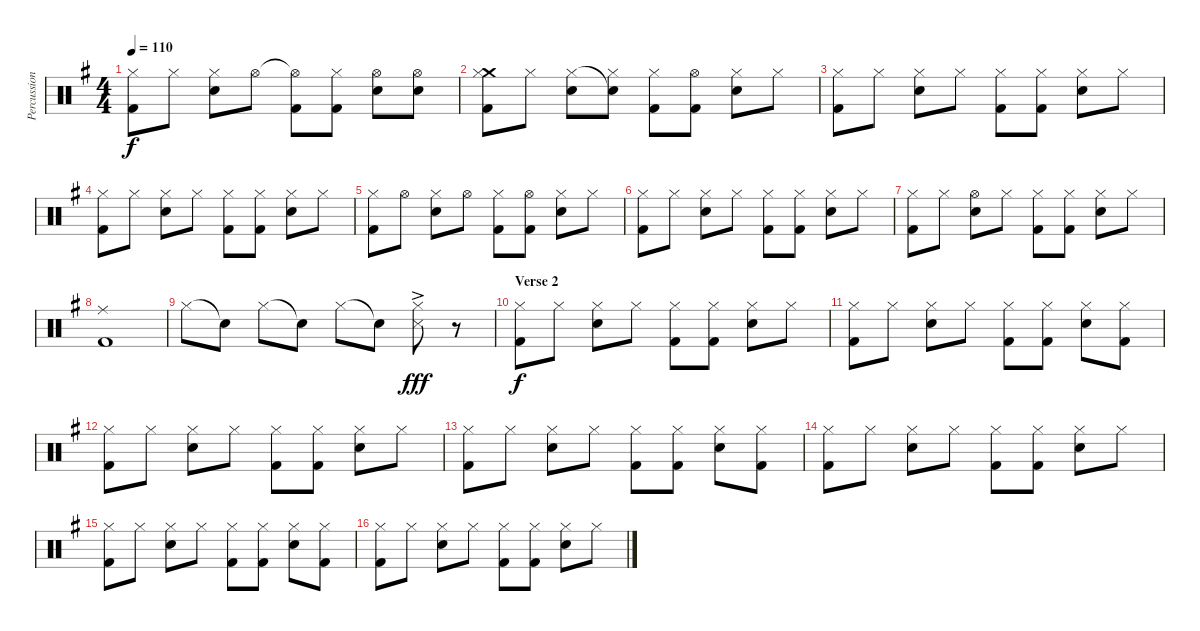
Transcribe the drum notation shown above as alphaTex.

\track ("Percussion" "Percussion") {instrument percussion}
\staff {score}
\articulation defaults
\ts (4 4)
\tempo 110
\clef neutral
\ks g
("Hi-Hat (closed)" "Kick (hit) 2").8{dy f} "Hi-Hat (closed)".8 ("Hi-Hat (closed)" "Electric Snare (hit)").8 "Hi-Hat (open)".8 ("Hi-Hat (open)"{t} "Kick (hit) 2").8 ("Hi-Hat (closed)" "Kick (hit) 2").8 ("Hi-Hat (open)" "Electric Snare (hit)").8 ("Hi-Hat (open)" "Electric Snare (hit)").8 |
("Crash medium (hit)" "Hi-Hat (closed)" "Kick (hit) 2").8 "Hi-Hat (closed)".8 ("Hi-Hat (closed)" "Electric Snare (hit)").8 ("Snare (hit)"{t} "Hi-Hat (closed)").8 ("Hi-Hat (closed)" "Kick (hit) 2").8 ("Hi-Hat (open)" "Kick (hit) 2").8 ("Hi-Hat (closed)" "Electric Snare (hit)").8 "Hi-Hat (closed)".8 |
("Hi-Hat (closed)" "Kick (hit) 2").8 "Hi-Hat (closed)".8 ("Hi-Hat (closed)" "Electric Snare (hit)").8 "Hi-Hat (closed)".8 ("Hi-Hat (closed)" "Kick (hit) 2").8 ("Hi-Hat (closed)" "Kick (hit) 2").8 ("Hi-Hat (closed)" "Electric Snare (hit)").8 "Hi-Hat (closed)".8 |
("Hi-Hat (closed)" "Kick (hit) 2").8 "Hi-Hat (closed)".8 ("Hi-Hat (closed)" "Electric Snare (hit)").8 "Hi-Hat (closed)".8 ("Hi-Hat (closed)" "Kick (hit) 2").8 ("Hi-Hat (closed)" "Kick (hit) 2").8 ("Hi-Hat (closed)" "Electric Snare (hit)").8 "Hi-Hat (closed)".8 |
("Hi-Hat (closed)" "Kick (hit) 2").8 "Hi-Hat (open)".8 ("Hi-Hat (closed)" "Electric Snare (hit)").8 "Hi-Hat (open)".8 ("Hi-Hat (closed)" "Kick (hit) 2").8 ("Hi-Hat (open)" "Kick (hit) 2").8 ("Hi-Hat (closed)" "Electric Snare (hit)").8 "Hi-Hat (closed)".8 |
("Hi-Hat (closed)" "Kick (hit) 2").8 "Hi-Hat (closed)".8 ("Hi-Hat (closed)" "Electric Snare (hit)").8 "Hi-Hat (closed)".8 ("Hi-Hat (closed)" "Kick (hit) 2").8 ("Hi-Hat (closed)" "Kick (hit) 2").8 ("Hi-Hat (closed)" "Electric Snare (hit)").8 "Hi-Hat (closed)".8 |
("Hi-Hat (closed)" "Kick (hit) 2").8 "Hi-Hat (closed)".8 ("Hi-Hat (open)" "Electric Snare (hit)").8 "Hi-Hat (closed)".8 ("Hi-Hat (closed)" "Kick (hit) 2").8 ("Hi-Hat (closed)" "Kick (hit) 2").8 ("Hi-Hat (closed)" "Electric Snare (hit)").8 "Hi-Hat (closed)".8 |
("Ride (middle)" "Kick (hit) 2").1 |
"Hi-Hat (closed)".8 "Snare (hit)"{t}.8 "Hi-Hat (closed)".8 "Snare (hit)"{t}.8 "Hi-Hat (closed)".8 "Snare (hit)"{t}.8 ("Hi-Hat (closed)"{ac} "Snare (side stick) 3").8{dy fff} r.8 |
\section ("" "Verse 2")
("Hi-Hat (closed)" "Kick (hit) 2").8{dy f} "Hi-Hat (closed)".8 ("Hi-Hat (closed)" "Electric Snare (hit)").8 "Hi-Hat (closed)".8 ("Hi-Hat (closed)" "Kick (hit) 2").8 ("Hi-Hat (closed)" "Kick (hit) 2").8 ("Hi-Hat (closed)" "Electric Snare (hit)").8 "Hi-Hat (closed)".8 |
("Hi-Hat (closed)" "Kick (hit) 2").8 "Hi-Hat (closed)".8 ("Hi-Hat (closed)" "Electric Snare (hit)").8 "Hi-Hat (closed)".8 ("Hi-Hat (closed)" "Kick (hit) 2").8 ("Hi-Hat (closed)" "Kick (hit) 2").8 ("Hi-Hat (closed)" "Electric Snare (hit)").8 ("Hi-Hat (closed)" "Kick (hit) 2").8 |
("Hi-Hat (closed)" "Kick (hit) 2").8 "Hi-Hat (closed)".8 ("Hi-Hat (closed)" "Electric Snare (hit)").8 "Hi-Hat (closed)".8 ("Hi-Hat (closed)" "Kick (hit) 2").8 ("Hi-Hat (closed)" "Kick (hit) 2").8 ("Hi-Hat (closed)" "Electric Snare (hit)").8 "Hi-Hat (closed)".8 |
("Hi-Hat (closed)" "Kick (hit) 2").8 "Hi-Hat (closed)".8 ("Hi-Hat (closed)" "Electric Snare (hit)").8 "Hi-Hat (closed)".8 ("Hi-Hat (closed)" "Kick (hit) 2").8 ("Hi-Hat (closed)" "Kick (hit) 2").8 ("Hi-Hat (closed)" "Electric Snare (hit)").8 ("Hi-Hat (closed)" "Kick (hit) 2").8 |
("Hi-Hat (closed)" "Kick (hit) 2").8 "Hi-Hat (closed)".8 ("Hi-Hat (closed)" "Electric Snare (hit)").8 "Hi-Hat (closed)".8 ("Hi-Hat (closed)" "Kick (hit) 2").8 ("Hi-Hat (closed)" "Kick (hit) 2").8 ("Hi-Hat (closed)" "Electric Snare (hit)").8 "Hi-Hat (closed)".8 |
("Hi-Hat (closed)" "Kick (hit) 2").8 "Hi-Hat (closed)".8 ("Hi-Hat (closed)" "Electric Snare (hit)").8 "Hi-Hat (closed)".8 ("Hi-Hat (closed)" "Kick (hit) 2").8 ("Hi-Hat (closed)" "Kick (hit) 2").8 ("Hi-Hat (closed)" "Electric Snare (hit)").8 ("Hi-Hat (closed)" "Kick (hit) 2").8 |
("Hi-Hat (closed)" "Kick (hit) 2").8 "Hi-Hat (closed)".8 ("Hi-Hat (closed)" "Electric Snare (hit)").8 "Hi-Hat (closed)".8 ("Hi-Hat (closed)" "Kick (hit) 2").8 ("Hi-Hat (closed)" "Kick (hit) 2").8 ("Hi-Hat (closed)" "Electric Snare (hit)").8 "Hi-Hat (closed)".8
